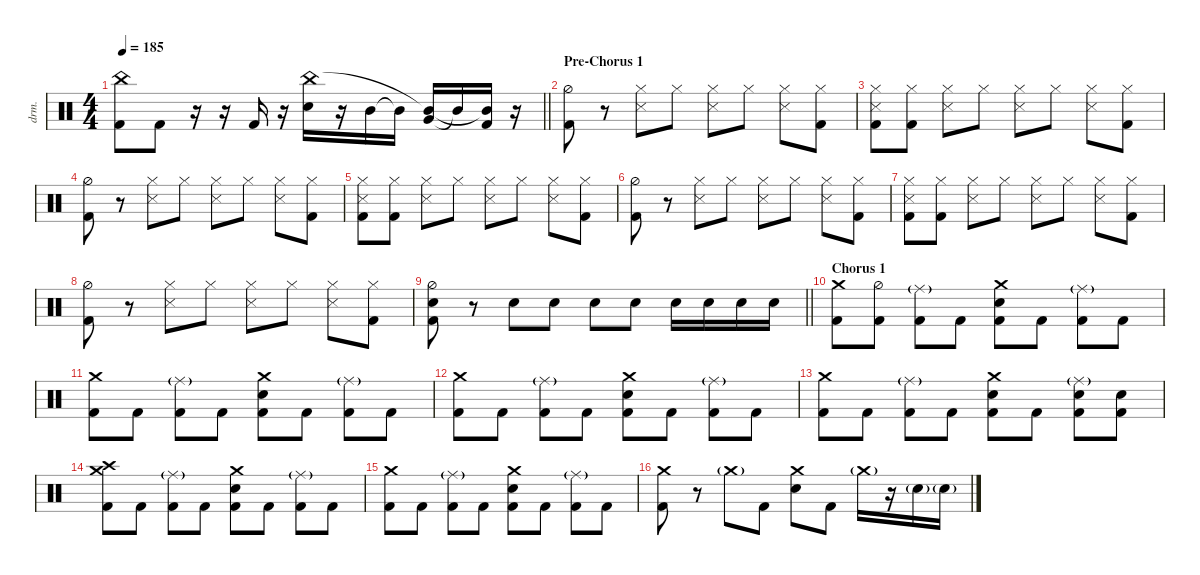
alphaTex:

\defaultSystemsLayout 4
\hideDynamics
\bracketExtendMode nobrackets
\track ("Drums - Šimon" "drm.") {instrument percussion}
\staff {score}
\articulation defaults
\ts (4 4)
\tempo 185
\clef neutral
\barLineRight lightlight
\ks c
("China (hit)" "Kick (hit) 2").8{dy ff} "Kick (hit) 2".8 r.16 r.16 "Kick (hit) 2".16 r.16 ("Snare (hit) 2" "China (hit)").16 r.16 "Mid Tom (hit)".16 "Mid Tom (hit)"{t}.16 ("Very Low Tom (hit)" "Mid Tom (hit)"{t}).16 "Mid Tom (hit)"{t}.16 ("Kick (hit) 2" "Mid Tom (hit)"{t}).16 r.16 |
\section ("" "Pre-Chorus 1")
("Hi-Hat (half)" "Kick (hit) 2").8 r.8 ("Hi-Hat (closed)" "Snare (side stick) 3").8 "Hi-Hat (closed)".8 ("Hi-Hat (closed)" "Snare (side stick) 3").8 "Hi-Hat (closed)".8 ("Hi-Hat (closed)" "Snare (side stick) 3").8 ("Hi-Hat (closed)" "Kick (hit) 2").8 |
("Hi-Hat (closed)" "Snare (side stick) 3" "Kick (hit) 2").8 ("Hi-Hat (closed)" "Kick (hit) 2").8 ("Hi-Hat (closed)" "Snare (side stick) 3").8 "Hi-Hat (closed)".8 ("Hi-Hat (closed)" "Snare (side stick) 3").8 "Hi-Hat (closed)".8 ("Hi-Hat (closed)" "Snare (side stick) 3").8 ("Hi-Hat (closed)" "Kick (hit) 2").8 |
("Hi-Hat (half)" "Kick (hit) 2").8 r.8 ("Hi-Hat (closed)" "Snare (side stick) 3").8 "Hi-Hat (closed)".8 ("Hi-Hat (closed)" "Snare (side stick) 3").8 "Hi-Hat (closed)".8 ("Hi-Hat (closed)" "Snare (side stick) 3").8 ("Hi-Hat (closed)" "Kick (hit) 2").8 |
("Hi-Hat (closed)" "Snare (side stick) 3" "Kick (hit) 2").8 ("Hi-Hat (closed)" "Kick (hit) 2").8 ("Hi-Hat (closed)" "Snare (side stick) 3").8 "Hi-Hat (closed)".8 ("Hi-Hat (closed)" "Snare (side stick) 3").8 "Hi-Hat (closed)".8 ("Hi-Hat (closed)" "Snare (side stick) 3").8 ("Hi-Hat (closed)" "Kick (hit) 2").8 |
("Hi-Hat (half)" "Kick (hit) 2").8 r.8 ("Hi-Hat (closed)" "Snare (side stick) 3").8 "Hi-Hat (closed)".8 ("Hi-Hat (closed)" "Snare (side stick) 3").8 "Hi-Hat (closed)".8 ("Hi-Hat (closed)" "Snare (side stick) 3").8 ("Hi-Hat (closed)" "Kick (hit) 2").8 |
("Hi-Hat (closed)" "Snare (side stick) 3" "Kick (hit) 2").8 ("Hi-Hat (closed)" "Kick (hit) 2").8 ("Hi-Hat (closed)" "Snare (side stick) 3").8 "Hi-Hat (closed)".8 ("Hi-Hat (closed)" "Snare (side stick) 3").8 "Hi-Hat (closed)".8 ("Hi-Hat (closed)" "Snare (side stick) 3").8 ("Hi-Hat (closed)" "Kick (hit) 2").8 |
("Hi-Hat (half)" "Kick (hit) 2").8 r.8 ("Hi-Hat (closed)" "Snare (side stick) 3").8 "Hi-Hat (closed)".8 ("Hi-Hat (closed)" "Snare (side stick) 3").8 "Hi-Hat (closed)".8 ("Hi-Hat (closed)" "Snare (side stick) 3").8 ("Hi-Hat (closed)" "Kick (hit) 2").8 |
\barLineRight lightlight
("Hi-Hat (half)" "Snare (hit) 2" "Kick (hit) 2").8 r.8 "Snare (hit) 2".8 "Snare (hit) 2".8 "Snare (hit) 2".8 "Snare (hit) 2".8 "Snare (hit) 2".16 "Snare (hit) 2".16 "Snare (hit) 2".16 "Snare (hit) 2".16 |
\section ("" "Chorus 1")
("Crash medium (hit)" "Kick (hit) 2").8 ("Kick (hit) 2" "Hi-Hat (half)").8 ("Kick (hit) 2" "Ride (middle)"{g}).8 "Kick (hit) 2".8 ("Snare (hit) 2" "Crash medium (hit)" "Kick (hit) 2").8 "Kick (hit) 2".8 ("Kick (hit) 2" "Ride (middle)"{g}).8 "Kick (hit) 2".8 |
("Crash medium (hit)" "Kick (hit) 2").8 "Kick (hit) 2".8 ("Kick (hit) 2" "Ride (middle)"{g}).8 "Kick (hit) 2".8 ("Snare (hit) 2" "Crash medium (hit)" "Kick (hit) 2").8 "Kick (hit) 2".8 ("Kick (hit) 2" "Ride (middle)"{g}).8 "Kick (hit) 2".8 |
("Crash medium (hit)" "Kick (hit) 2").8 "Kick (hit) 2".8 ("Kick (hit) 2" "Ride (middle)"{g}).8 "Kick (hit) 2".8 ("Snare (hit) 2" "Crash medium (hit)" "Kick (hit) 2").8 "Kick (hit) 2".8 ("Kick (hit) 2" "Ride (middle)"{g}).8 "Kick (hit) 2".8 |
("Crash medium (hit)" "Kick (hit) 2").8 "Kick (hit) 2".8 ("Kick (hit) 2" "Ride (middle)"{g}).8 "Kick (hit) 2".8 ("Snare (hit) 2" "Crash medium (hit)" "Kick (hit) 2").8 "Kick (hit) 2".8 ("Kick (hit) 2" "Ride (middle)"{g} "Snare (hit) 2").8 ("Kick (hit) 2" "Snare (hit) 2").8 |
("Crash medium (hit)" "Kick (hit) 2" "Crash high (hit)").8 "Kick (hit) 2".8 ("Kick (hit) 2" "Ride (middle)"{g}).8 "Kick (hit) 2".8 ("Snare (hit) 2" "Crash medium (hit)" "Kick (hit) 2").8 "Kick (hit) 2".8 ("Kick (hit) 2" "Ride (middle)"{g}).8 "Kick (hit) 2".8 |
("Crash medium (hit)" "Kick (hit) 2").8 "Kick (hit) 2".8 ("Kick (hit) 2" "Ride (middle)"{g}).8 "Kick (hit) 2".8 ("Snare (hit) 2" "Crash medium (hit)" "Kick (hit) 2").8 "Kick (hit) 2".8 ("Kick (hit) 2" "Ride (middle)"{g}).8 "Kick (hit) 2".8 |
("Kick (hit) 2" "Crash medium (hit)").8 r.8 "Crash medium (hit)"{g}.8 "Kick (hit) 2".8 ("Snare (hit) 2" "Crash medium (hit)").8 "Kick (hit) 2".8 "Crash medium (hit)"{g}.16 r.16 "Snare (hit) 2"{g}.16 "Snare (hit) 2"{g}.16
